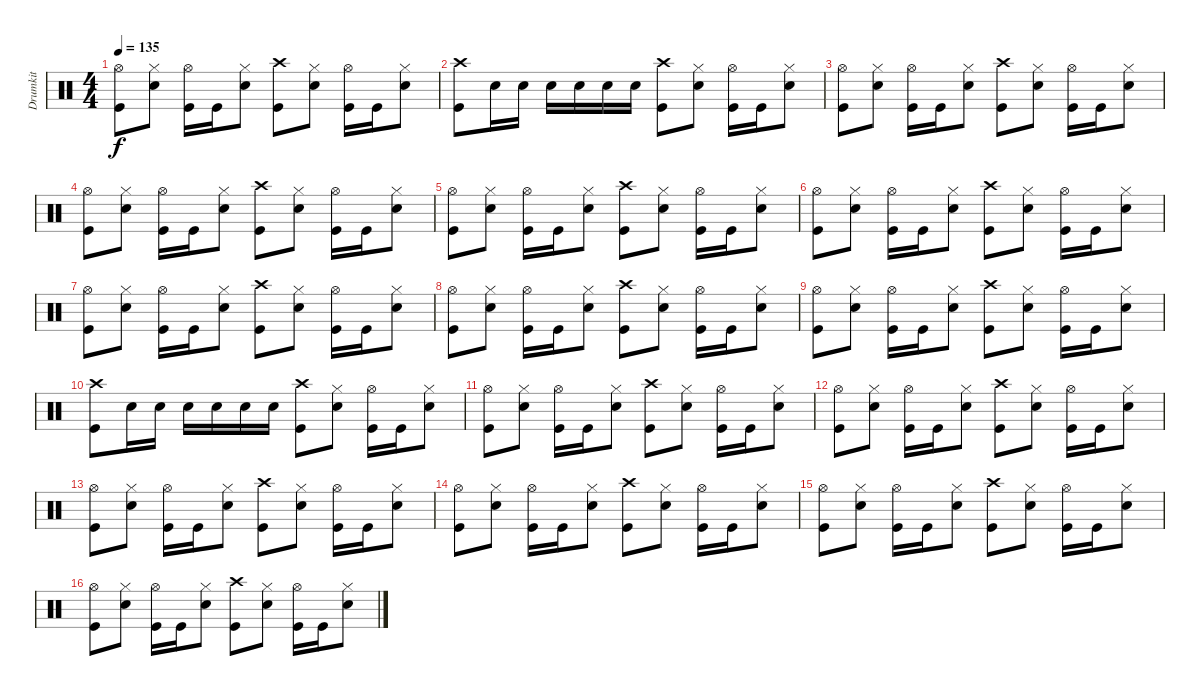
\track ("Drumkit" "Drumkit") {instrument percussion}
\staff {score}
\articulation defaults
\ts (4 4)
\tempo 135
\clef neutral
\ks c
("Hi-Hat (open)" "Kick (hit)").8{dy f} ("Snare (hit) 2" "Hi-Hat (closed)").8 ("Hi-Hat (open)" "Kick (hit)").16 "Kick (hit)".16 ("Hi-Hat (closed)" "Snare (hit) 2").8 ("Crash high (hit)" "Kick (hit)").8 ("Hi-Hat (closed)" "Snare (hit) 2").8 ("Hi-Hat (open)" "Kick (hit)").16 "Kick (hit)".16 ("Snare (hit) 2" "Hi-Hat (closed)").8 |
("Kick (hit)" "Crash high (hit)").8 "Snare (hit) 2".16 "Snare (hit) 2".16 "Snare (hit) 2".16 "Snare (hit) 2".16 "Snare (hit) 2".16 "Snare (hit) 2".16 ("Crash high (hit)" "Kick (hit)").8 ("Hi-Hat (closed)" "Snare (hit) 2").8 ("Hi-Hat (open)" "Kick (hit)").16 "Kick (hit)".16 ("Snare (hit) 2" "Hi-Hat (closed)").8 |
("Hi-Hat (open)" "Kick (hit)").8 ("Snare (hit) 2" "Hi-Hat (closed)").8 ("Hi-Hat (open)" "Kick (hit)").16 "Kick (hit)".16 ("Hi-Hat (closed)" "Snare (hit) 2").8 ("Crash high (hit)" "Kick (hit)").8 ("Hi-Hat (closed)" "Snare (hit) 2").8 ("Hi-Hat (open)" "Kick (hit)").16 "Kick (hit)".16 ("Snare (hit) 2" "Hi-Hat (closed)").8 |
("Hi-Hat (open)" "Kick (hit)").8 ("Snare (hit) 2" "Hi-Hat (closed)").8 ("Hi-Hat (open)" "Kick (hit)").16 "Kick (hit)".16 ("Hi-Hat (closed)" "Snare (hit) 2").8 ("Crash high (hit)" "Kick (hit)").8 ("Hi-Hat (closed)" "Snare (hit) 2").8 ("Hi-Hat (open)" "Kick (hit)").16 "Kick (hit)".16 ("Snare (hit) 2" "Hi-Hat (closed)").8 |
("Hi-Hat (open)" "Kick (hit)").8 ("Snare (hit) 2" "Hi-Hat (closed)").8 ("Hi-Hat (open)" "Kick (hit)").16 "Kick (hit)".16 ("Hi-Hat (closed)" "Snare (hit) 2").8 ("Crash high (hit)" "Kick (hit)").8 ("Hi-Hat (closed)" "Snare (hit) 2").8 ("Hi-Hat (open)" "Kick (hit)").16 "Kick (hit)".16 ("Snare (hit) 2" "Hi-Hat (closed)").8 |
("Hi-Hat (open)" "Kick (hit)").8 ("Snare (hit) 2" "Hi-Hat (closed)").8 ("Hi-Hat (open)" "Kick (hit)").16 "Kick (hit)".16 ("Hi-Hat (closed)" "Snare (hit) 2").8 ("Crash high (hit)" "Kick (hit)").8 ("Hi-Hat (closed)" "Snare (hit) 2").8 ("Hi-Hat (open)" "Kick (hit)").16 "Kick (hit)".16 ("Snare (hit) 2" "Hi-Hat (closed)").8 |
("Hi-Hat (open)" "Kick (hit)").8 ("Snare (hit) 2" "Hi-Hat (closed)").8 ("Hi-Hat (open)" "Kick (hit)").16 "Kick (hit)".16 ("Hi-Hat (closed)" "Snare (hit) 2").8 ("Crash high (hit)" "Kick (hit)").8 ("Hi-Hat (closed)" "Snare (hit) 2").8 ("Hi-Hat (open)" "Kick (hit)").16 "Kick (hit)".16 ("Snare (hit) 2" "Hi-Hat (closed)").8 |
("Hi-Hat (open)" "Kick (hit)").8 ("Snare (hit) 2" "Hi-Hat (closed)").8 ("Hi-Hat (open)" "Kick (hit)").16 "Kick (hit)".16 ("Hi-Hat (closed)" "Snare (hit) 2").8 ("Crash high (hit)" "Kick (hit)").8 ("Hi-Hat (closed)" "Snare (hit) 2").8 ("Hi-Hat (open)" "Kick (hit)").16 "Kick (hit)".16 ("Snare (hit) 2" "Hi-Hat (closed)").8 |
("Hi-Hat (open)" "Kick (hit)").8 ("Snare (hit) 2" "Hi-Hat (closed)").8 ("Hi-Hat (open)" "Kick (hit)").16 "Kick (hit)".16 ("Hi-Hat (closed)" "Snare (hit) 2").8 ("Crash high (hit)" "Kick (hit)").8 ("Hi-Hat (closed)" "Snare (hit) 2").8 ("Hi-Hat (open)" "Kick (hit)").16 "Kick (hit)".16 ("Snare (hit) 2" "Hi-Hat (closed)").8 |
("Kick (hit)" "Crash high (hit)").8 "Snare (hit) 2".16 "Snare (hit) 2".16 "Snare (hit) 2".16 "Snare (hit) 2".16 "Snare (hit) 2".16 "Snare (hit) 2".16 ("Crash high (hit)" "Kick (hit)").8 ("Hi-Hat (closed)" "Snare (hit) 2").8 ("Hi-Hat (open)" "Kick (hit)").16 "Kick (hit)".16 ("Snare (hit) 2" "Hi-Hat (closed)").8 |
("Hi-Hat (open)" "Kick (hit)").8 ("Snare (hit) 2" "Hi-Hat (closed)").8 ("Hi-Hat (open)" "Kick (hit)").16 "Kick (hit)".16 ("Hi-Hat (closed)" "Snare (hit) 2").8 ("Crash high (hit)" "Kick (hit)").8 ("Hi-Hat (closed)" "Snare (hit) 2").8 ("Hi-Hat (open)" "Kick (hit)").16 "Kick (hit)".16 ("Snare (hit) 2" "Hi-Hat (closed)").8 |
("Hi-Hat (open)" "Kick (hit)").8 ("Snare (hit) 2" "Hi-Hat (closed)").8 ("Hi-Hat (open)" "Kick (hit)").16 "Kick (hit)".16 ("Hi-Hat (closed)" "Snare (hit) 2").8 ("Crash high (hit)" "Kick (hit)").8 ("Hi-Hat (closed)" "Snare (hit) 2").8 ("Hi-Hat (open)" "Kick (hit)").16 "Kick (hit)".16 ("Snare (hit) 2" "Hi-Hat (closed)").8 |
("Hi-Hat (open)" "Kick (hit)").8 ("Snare (hit) 2" "Hi-Hat (closed)").8 ("Hi-Hat (open)" "Kick (hit)").16 "Kick (hit)".16 ("Hi-Hat (closed)" "Snare (hit) 2").8 ("Crash high (hit)" "Kick (hit)").8 ("Hi-Hat (closed)" "Snare (hit) 2").8 ("Hi-Hat (open)" "Kick (hit)").16 "Kick (hit)".16 ("Snare (hit) 2" "Hi-Hat (closed)").8 |
("Hi-Hat (open)" "Kick (hit)").8 ("Snare (hit) 2" "Hi-Hat (closed)").8 ("Hi-Hat (open)" "Kick (hit)").16 "Kick (hit)".16 ("Hi-Hat (closed)" "Snare (hit) 2").8 ("Crash high (hit)" "Kick (hit)").8 ("Hi-Hat (closed)" "Snare (hit) 2").8 ("Hi-Hat (open)" "Kick (hit)").16 "Kick (hit)".16 ("Snare (hit) 2" "Hi-Hat (closed)").8 |
("Hi-Hat (open)" "Kick (hit)").8 ("Snare (hit) 2" "Hi-Hat (closed)").8 ("Hi-Hat (open)" "Kick (hit)").16 "Kick (hit)".16 ("Hi-Hat (closed)" "Snare (hit) 2").8 ("Crash high (hit)" "Kick (hit)").8 ("Hi-Hat (closed)" "Snare (hit) 2").8 ("Hi-Hat (open)" "Kick (hit)").16 "Kick (hit)".16 ("Snare (hit) 2" "Hi-Hat (closed)").8 |
("Hi-Hat (open)" "Kick (hit)").8 ("Snare (hit) 2" "Hi-Hat (closed)").8 ("Hi-Hat (open)" "Kick (hit)").16 "Kick (hit)".16 ("Hi-Hat (closed)" "Snare (hit) 2").8 ("Crash high (hit)" "Kick (hit)").8 ("Hi-Hat (closed)" "Snare (hit) 2").8 ("Hi-Hat (open)" "Kick (hit)").16 "Kick (hit)".16 ("Snare (hit) 2" "Hi-Hat (closed)").8
